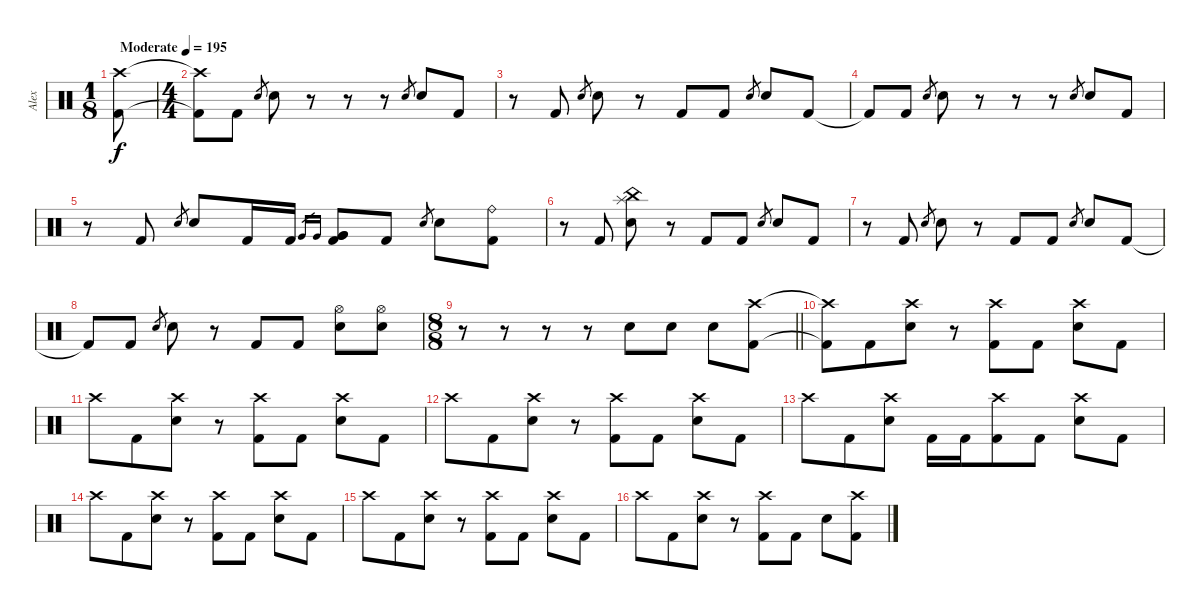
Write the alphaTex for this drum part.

\track ("Alex" "Alex") {instrument percussion}
\staff {score}
\articulation defaults
\ts (1 8)
\tempo (195 "Moderate")
\clef neutral
\ks c
("Crash high (hit)" "Kick (hit) 2").8{dy f} |
\ts (4 4)
("Crash high (hit)"{t} "Kick (hit) 2"{t}).8 "Kick (hit) 2".8 "Electric Snare (hit)".8{gr} "Electric Snare (hit)".8 r.8 r.8 r.8 "Electric Snare (hit)".8{gr} "Electric Snare (hit)".8 "Kick (hit) 2".8 |
r.8 "Kick (hit) 2".8 "Electric Snare (hit)".8{gr} "Electric Snare (hit)".8 r.8 "Kick (hit) 2".8 "Kick (hit) 2".8 "Electric Snare (hit)".8{gr} "Electric Snare (hit)".8 "Kick (hit) 2".8 |
"Kick (hit) 2"{t}.8 "Kick (hit) 2".8 "Electric Snare (hit)".8{gr} "Electric Snare (hit)".8 r.8 r.8 r.8 "Electric Snare (hit)".8{gr} "Electric Snare (hit)".8 "Kick (hit) 2".8 |
r.8 "Kick (hit) 2".8 "Electric Snare (hit)".8{gr} "Electric Snare (hit)".8 "Kick (hit) 2".16 "Kick (hit) 2".16 "Very Low Tom (hit)".16{gr} "Very Low Tom (hit)".16{gr} ("Very Low Tom (hit)" "Very Low Tom (hit)" "Kick (hit) 2").8 "Kick (hit) 2".8 "Electric Snare (hit)".8{gr} "Electric Snare (hit)".8 ("Ride (bell)" "Kick (hit) 2").8 |
r.8 "Kick (hit) 2".8 ("China (hit)" "Splash (hit)" "Electric Snare (hit)").8 r.8 "Kick (hit) 2".8 "Kick (hit) 2".8 "Electric Snare (hit)".8{gr} "Electric Snare (hit)".8 "Kick (hit) 2".8 |
r.8 "Kick (hit) 2".8 "Electric Snare (hit)".8{gr} "Electric Snare (hit)".8 r.8 "Kick (hit) 2".8 "Kick (hit) 2".8 "Electric Snare (hit)".8{gr} "Electric Snare (hit)".8 "Kick (hit) 2".8 |
"Kick (hit) 2"{t}.8 "Kick (hit) 2".8 "Electric Snare (hit)".8{gr} "Electric Snare (hit)".8 r.8 "Kick (hit) 2".8 "Kick (hit) 2".8 ("Hi-Hat (open)" "Electric Snare (hit)").8 ("Hi-Hat (open)" "Electric Snare (hit)").8 |
\ts (8 8)
\barLineRight lightlight
r.8 r.8 r.8 r.8 "Electric Snare (hit)".8 "Electric Snare (hit)".8 "Electric Snare (hit)".8 ("Crash high (hit)" "Kick (hit) 2").8 |
("Crash high (hit)"{t} "Kick (hit) 2"{t}).8 "Kick (hit) 2".8 ("Crash high (hit)" "Electric Snare (hit)").8 r.8 ("Crash high (hit)" "Kick (hit) 2").8 "Kick (hit) 2".8 ("Crash high (hit)" "Electric Snare (hit)").8 "Kick (hit) 2".8 |
"Crash high (hit)".8 "Kick (hit) 2".8 ("Crash high (hit)" "Electric Snare (hit)").8 r.8 ("Crash high (hit)" "Kick (hit) 2").8 "Kick (hit) 2".8 ("Crash high (hit)" "Electric Snare (hit)").8 "Kick (hit) 2".8 |
"Crash high (hit)".8 "Kick (hit) 2".8 ("Crash high (hit)" "Electric Snare (hit)").8 r.8 ("Crash high (hit)" "Kick (hit) 2").8 "Kick (hit) 2".8 ("Crash high (hit)" "Electric Snare (hit)").8 "Kick (hit) 2".8 |
"Crash high (hit)".8 "Kick (hit) 2".8 ("Crash high (hit)" "Electric Snare (hit)").8 "Kick (hit) 2".16 "Kick (hit) 2".16 ("Crash high (hit)" "Kick (hit) 2").8 "Kick (hit) 2".8 ("Crash high (hit)" "Electric Snare (hit)").8 "Kick (hit) 2".8 |
"Crash high (hit)".8 "Kick (hit) 2".8 ("Crash high (hit)" "Electric Snare (hit)").8 r.8 ("Crash high (hit)" "Kick (hit) 2").8 "Kick (hit) 2".8 ("Crash high (hit)" "Electric Snare (hit)").8 "Kick (hit) 2".8 |
"Crash high (hit)".8 "Kick (hit) 2".8 ("Crash high (hit)" "Electric Snare (hit)").8 r.8 ("Crash high (hit)" "Kick (hit) 2").8 "Kick (hit) 2".8 ("Crash high (hit)" "Electric Snare (hit)").8 "Kick (hit) 2".8 |
"Crash high (hit)".8 "Kick (hit) 2".8 ("Crash high (hit)" "Electric Snare (hit)").8 r.8 ("Crash high (hit)" "Kick (hit) 2").8 "Kick (hit) 2".8 "Electric Snare (hit)".8 ("Crash high (hit)" "Kick (hit) 2").8
